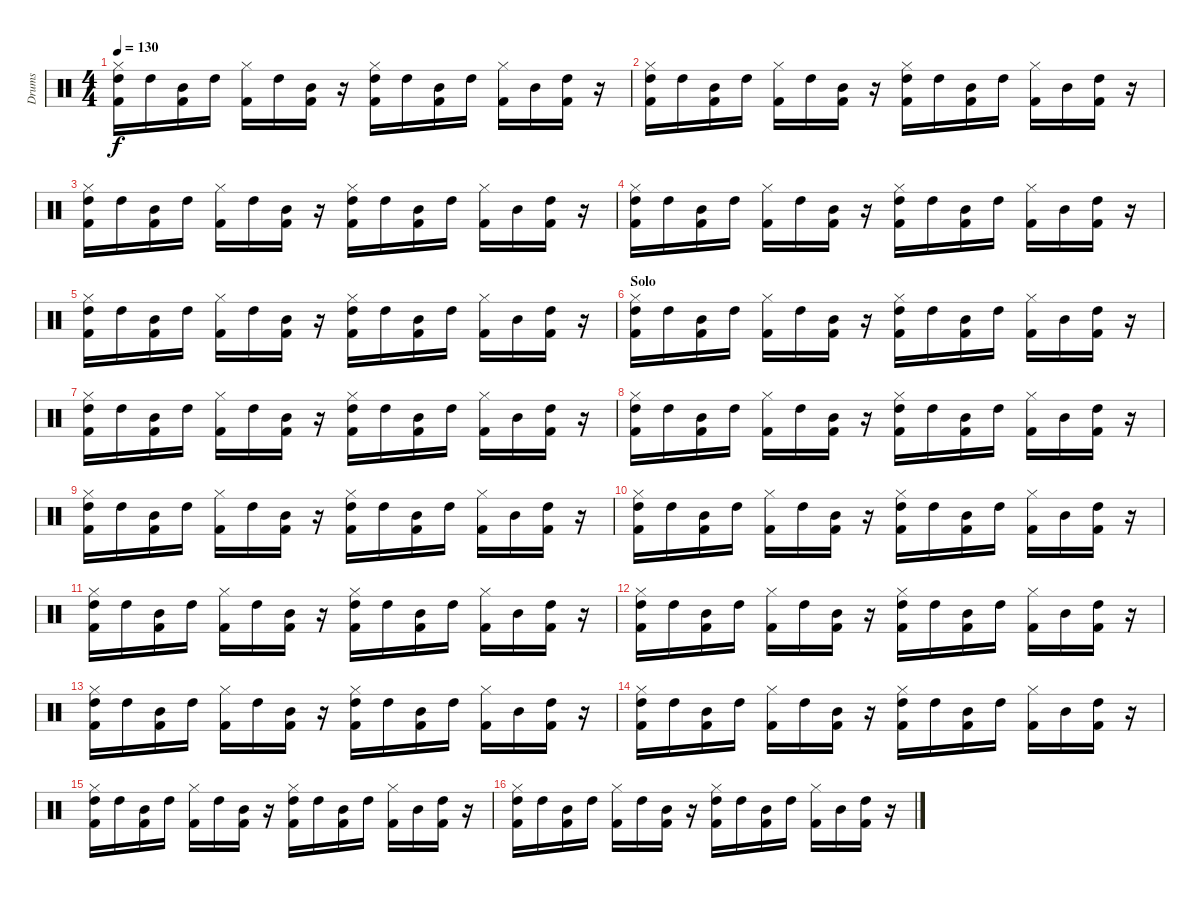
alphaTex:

\track ("Drums" "Drums") {instrument percussion}
\staff {score}
\articulation defaults
\ts (4 4)
\tempo 130
\clef neutral
\ks c
("Hi-Hat (closed)" "Kick (hit) 2" "High Tom (hit)").16{dy f} "High Tom (hit)".16 ("Kick (hit) 2" "Mid Tom (hit)").16 "High Tom (hit)".16 ("Hi-Hat (closed)" "Kick (hit) 2").16 "High Tom (hit)".16 ("Kick (hit) 2" "Mid Tom (hit)").16 r.16 ("Hi-Hat (closed)" "Kick (hit) 2" "High Tom (hit)").16 "High Tom (hit)".16 ("Kick (hit) 2" "Mid Tom (hit)").16 "High Tom (hit)".16 ("Hi-Hat (closed)" "Kick (hit) 2").16 "Mid Tom (hit)".16 ("Kick (hit) 2" "High Tom (hit)").16 r.16 |
("Hi-Hat (closed)" "Kick (hit) 2" "High Tom (hit)").16 "High Tom (hit)".16 ("Kick (hit) 2" "Mid Tom (hit)").16 "High Tom (hit)".16 ("Hi-Hat (closed)" "Kick (hit) 2").16 "High Tom (hit)".16 ("Kick (hit) 2" "Mid Tom (hit)").16 r.16 ("Hi-Hat (closed)" "Kick (hit) 2" "High Tom (hit)").16 "High Tom (hit)".16 ("Kick (hit) 2" "Mid Tom (hit)").16 "High Tom (hit)".16 ("Hi-Hat (closed)" "Kick (hit) 2").16 "Mid Tom (hit)".16 ("Kick (hit) 2" "High Tom (hit)").16 r.16 |
("Hi-Hat (closed)" "Kick (hit) 2" "High Tom (hit)").16 "High Tom (hit)".16 ("Kick (hit) 2" "Mid Tom (hit)").16 "High Tom (hit)".16 ("Hi-Hat (closed)" "Kick (hit) 2").16 "High Tom (hit)".16 ("Kick (hit) 2" "Mid Tom (hit)").16 r.16 ("Hi-Hat (closed)" "Kick (hit) 2" "High Tom (hit)").16 "High Tom (hit)".16 ("Kick (hit) 2" "Mid Tom (hit)").16 "High Tom (hit)".16 ("Hi-Hat (closed)" "Kick (hit) 2").16 "Mid Tom (hit)".16 ("Kick (hit) 2" "High Tom (hit)").16 r.16 |
("Hi-Hat (closed)" "Kick (hit) 2" "High Tom (hit)").16 "High Tom (hit)".16 ("Kick (hit) 2" "Mid Tom (hit)").16 "High Tom (hit)".16 ("Hi-Hat (closed)" "Kick (hit) 2").16 "High Tom (hit)".16 ("Kick (hit) 2" "Mid Tom (hit)").16 r.16 ("Hi-Hat (closed)" "Kick (hit) 2" "High Tom (hit)").16 "High Tom (hit)".16 ("Kick (hit) 2" "Mid Tom (hit)").16 "High Tom (hit)".16 ("Hi-Hat (closed)" "Kick (hit) 2").16 "Mid Tom (hit)".16 ("Kick (hit) 2" "High Tom (hit)").16 r.16 |
("Hi-Hat (closed)" "Kick (hit) 2" "High Tom (hit)").16 "High Tom (hit)".16 ("Kick (hit) 2" "Mid Tom (hit)").16 "High Tom (hit)".16 ("Hi-Hat (closed)" "Kick (hit) 2").16 "High Tom (hit)".16 ("Kick (hit) 2" "Mid Tom (hit)").16 r.16 ("Hi-Hat (closed)" "Kick (hit) 2" "High Tom (hit)").16 "High Tom (hit)".16 ("Kick (hit) 2" "Mid Tom (hit)").16 "High Tom (hit)".16 ("Hi-Hat (closed)" "Kick (hit) 2").16 "Mid Tom (hit)".16 ("Kick (hit) 2" "High Tom (hit)").16 r.16 |
\section ("" "Solo")
("Hi-Hat (closed)" "Kick (hit) 2" "High Tom (hit)").16 "High Tom (hit)".16 ("Kick (hit) 2" "Mid Tom (hit)").16 "High Tom (hit)".16 ("Hi-Hat (closed)" "Kick (hit) 2").16 "High Tom (hit)".16 ("Kick (hit) 2" "Mid Tom (hit)").16 r.16 ("Hi-Hat (closed)" "Kick (hit) 2" "High Tom (hit)").16 "High Tom (hit)".16 ("Kick (hit) 2" "Mid Tom (hit)").16 "High Tom (hit)".16 ("Hi-Hat (closed)" "Kick (hit) 2").16 "Mid Tom (hit)".16 ("Kick (hit) 2" "High Tom (hit)").16 r.16 |
("Hi-Hat (closed)" "Kick (hit) 2" "High Tom (hit)").16 "High Tom (hit)".16 ("Kick (hit) 2" "Mid Tom (hit)").16 "High Tom (hit)".16 ("Hi-Hat (closed)" "Kick (hit) 2").16 "High Tom (hit)".16 ("Kick (hit) 2" "Mid Tom (hit)").16 r.16 ("Hi-Hat (closed)" "Kick (hit) 2" "High Tom (hit)").16 "High Tom (hit)".16 ("Kick (hit) 2" "Mid Tom (hit)").16 "High Tom (hit)".16 ("Hi-Hat (closed)" "Kick (hit) 2").16 "Mid Tom (hit)".16 ("Kick (hit) 2" "High Tom (hit)").16 r.16 |
("Hi-Hat (closed)" "Kick (hit) 2" "High Tom (hit)").16 "High Tom (hit)".16 ("Kick (hit) 2" "Mid Tom (hit)").16 "High Tom (hit)".16 ("Hi-Hat (closed)" "Kick (hit) 2").16 "High Tom (hit)".16 ("Kick (hit) 2" "Mid Tom (hit)").16 r.16 ("Hi-Hat (closed)" "Kick (hit) 2" "High Tom (hit)").16 "High Tom (hit)".16 ("Kick (hit) 2" "Mid Tom (hit)").16 "High Tom (hit)".16 ("Hi-Hat (closed)" "Kick (hit) 2").16 "Mid Tom (hit)".16 ("Kick (hit) 2" "High Tom (hit)").16 r.16 |
("Hi-Hat (closed)" "Kick (hit) 2" "High Tom (hit)").16 "High Tom (hit)".16 ("Kick (hit) 2" "Mid Tom (hit)").16 "High Tom (hit)".16 ("Hi-Hat (closed)" "Kick (hit) 2").16 "High Tom (hit)".16 ("Kick (hit) 2" "Mid Tom (hit)").16 r.16 ("Hi-Hat (closed)" "Kick (hit) 2" "High Tom (hit)").16 "High Tom (hit)".16 ("Kick (hit) 2" "Mid Tom (hit)").16 "High Tom (hit)".16 ("Hi-Hat (closed)" "Kick (hit) 2").16 "Mid Tom (hit)".16 ("Kick (hit) 2" "High Tom (hit)").16 r.16 |
("Hi-Hat (closed)" "Kick (hit) 2" "High Tom (hit)").16 "High Tom (hit)".16 ("Kick (hit) 2" "Mid Tom (hit)").16 "High Tom (hit)".16 ("Hi-Hat (closed)" "Kick (hit) 2").16 "High Tom (hit)".16 ("Kick (hit) 2" "Mid Tom (hit)").16 r.16 ("Hi-Hat (closed)" "Kick (hit) 2" "High Tom (hit)").16 "High Tom (hit)".16 ("Kick (hit) 2" "Mid Tom (hit)").16 "High Tom (hit)".16 ("Hi-Hat (closed)" "Kick (hit) 2").16 "Mid Tom (hit)".16 ("Kick (hit) 2" "High Tom (hit)").16 r.16 |
("Hi-Hat (closed)" "Kick (hit) 2" "High Tom (hit)").16 "High Tom (hit)".16 ("Kick (hit) 2" "Mid Tom (hit)").16 "High Tom (hit)".16 ("Hi-Hat (closed)" "Kick (hit) 2").16 "High Tom (hit)".16 ("Kick (hit) 2" "Mid Tom (hit)").16 r.16 ("Hi-Hat (closed)" "Kick (hit) 2" "High Tom (hit)").16 "High Tom (hit)".16 ("Kick (hit) 2" "Mid Tom (hit)").16 "High Tom (hit)".16 ("Hi-Hat (closed)" "Kick (hit) 2").16 "Mid Tom (hit)".16 ("Kick (hit) 2" "High Tom (hit)").16 r.16 |
("Hi-Hat (closed)" "Kick (hit) 2" "High Tom (hit)").16 "High Tom (hit)".16 ("Kick (hit) 2" "Mid Tom (hit)").16 "High Tom (hit)".16 ("Hi-Hat (closed)" "Kick (hit) 2").16 "High Tom (hit)".16 ("Kick (hit) 2" "Mid Tom (hit)").16 r.16 ("Hi-Hat (closed)" "Kick (hit) 2" "High Tom (hit)").16 "High Tom (hit)".16 ("Kick (hit) 2" "Mid Tom (hit)").16 "High Tom (hit)".16 ("Hi-Hat (closed)" "Kick (hit) 2").16 "Mid Tom (hit)".16 ("Kick (hit) 2" "High Tom (hit)").16 r.16 |
("Hi-Hat (closed)" "Kick (hit) 2" "High Tom (hit)").16 "High Tom (hit)".16 ("Kick (hit) 2" "Mid Tom (hit)").16 "High Tom (hit)".16 ("Hi-Hat (closed)" "Kick (hit) 2").16 "High Tom (hit)".16 ("Kick (hit) 2" "Mid Tom (hit)").16 r.16 ("Hi-Hat (closed)" "Kick (hit) 2" "High Tom (hit)").16 "High Tom (hit)".16 ("Kick (hit) 2" "Mid Tom (hit)").16 "High Tom (hit)".16 ("Hi-Hat (closed)" "Kick (hit) 2").16 "Mid Tom (hit)".16 ("Kick (hit) 2" "High Tom (hit)").16 r.16 |
("Hi-Hat (closed)" "Kick (hit) 2" "High Tom (hit)").16 "High Tom (hit)".16 ("Kick (hit) 2" "Mid Tom (hit)").16 "High Tom (hit)".16 ("Hi-Hat (closed)" "Kick (hit) 2").16 "High Tom (hit)".16 ("Kick (hit) 2" "Mid Tom (hit)").16 r.16 ("Hi-Hat (closed)" "Kick (hit) 2" "High Tom (hit)").16 "High Tom (hit)".16 ("Kick (hit) 2" "Mid Tom (hit)").16 "High Tom (hit)".16 ("Hi-Hat (closed)" "Kick (hit) 2").16 "Mid Tom (hit)".16 ("Kick (hit) 2" "High Tom (hit)").16 r.16 |
("Hi-Hat (closed)" "Kick (hit) 2" "High Tom (hit)").16 "High Tom (hit)".16 ("Kick (hit) 2" "Mid Tom (hit)").16 "High Tom (hit)".16 ("Hi-Hat (closed)" "Kick (hit) 2").16 "High Tom (hit)".16 ("Kick (hit) 2" "Mid Tom (hit)").16 r.16 ("Hi-Hat (closed)" "Kick (hit) 2" "High Tom (hit)").16 "High Tom (hit)".16 ("Kick (hit) 2" "Mid Tom (hit)").16 "High Tom (hit)".16 ("Hi-Hat (closed)" "Kick (hit) 2").16 "Mid Tom (hit)".16 ("Kick (hit) 2" "High Tom (hit)").16 r.16 |
("Hi-Hat (closed)" "Kick (hit) 2" "High Tom (hit)").16 "High Tom (hit)".16 ("Kick (hit) 2" "Mid Tom (hit)").16 "High Tom (hit)".16 ("Hi-Hat (closed)" "Kick (hit) 2").16 "High Tom (hit)".16 ("Kick (hit) 2" "Mid Tom (hit)").16 r.16 ("Hi-Hat (closed)" "Kick (hit) 2" "High Tom (hit)").16 "High Tom (hit)".16 ("Kick (hit) 2" "Mid Tom (hit)").16 "High Tom (hit)".16 ("Hi-Hat (closed)" "Kick (hit) 2").16 "Mid Tom (hit)".16 ("Kick (hit) 2" "High Tom (hit)").16 r.16
